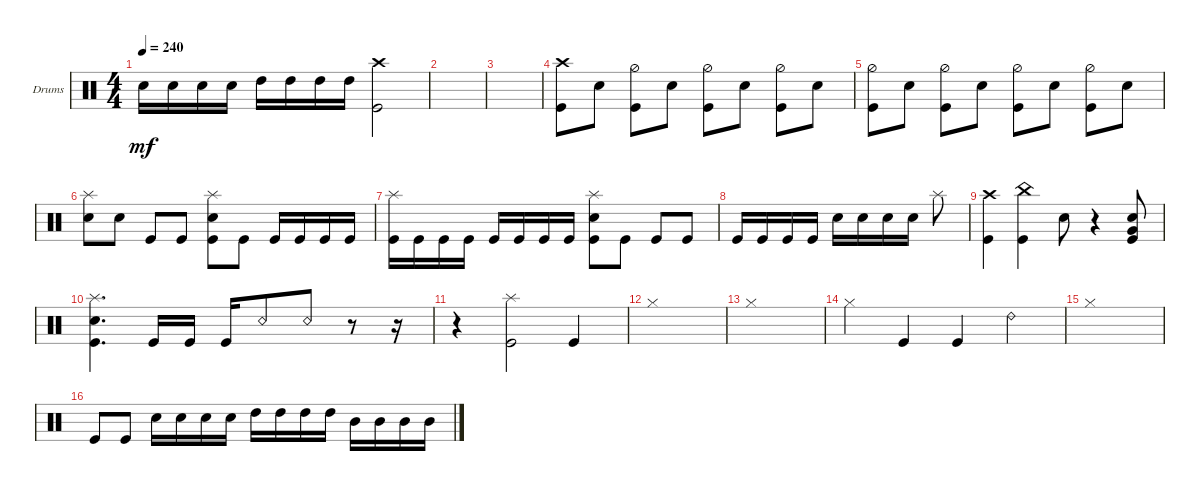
\defaultSystemsLayout 4
\bracketExtendMode groupsimilarinstruments
\firstSystemTrackNameOrientation horizontal
\otherSystemsTrackNameOrientation horizontal
\track ("Drumkit" "Drums") {instrument percussion}
\staff {score}
\articulation defaults
\ts (4 4)
\tempo 240
\clef neutral
\ks c "Snare (hit) 2".16{dy mf} "Snare (hit) 2".16 "Snare (hit) 2".16 "Snare (hit) 2".16 "High Tom (hit)".16 "High Tom (hit)".16 "High Tom (hit)".16 "High Tom (hit)".16
("Crash high (hit)" "Kick (hit)").2 |
|
|
("Crash high (hit)" "Kick (hit)").8 "Snare (hit) 2".8 ("Hi-Hat (half)" "Kick (hit)").8 "Snare (hit) 2".8 ("Hi-Hat (half)" "Kick (hit)").8 "Snare (hit) 2".8 ("Hi-Hat (half)" "Kick (hit)").8 "Snare (hit) 2".8 |
("Hi-Hat (half)" "Kick (hit)").8 "Snare (hit) 2".8 ("Hi-Hat (half)" "Kick (hit)").8 "Snare (hit) 2".8 ("Hi-Hat (half)" "Kick (hit)").8 "Snare (hit) 2".8 ("Hi-Hat (half)" "Kick (hit)").8 "Snare (hit) 2".8 |
("Snare (hit) 2" "Splash (hit)").8 "Snare (hit) 2".8 "Kick (hit)".8 "Kick (hit)".8 ("Kick (hit)" "Splash (hit)" "Snare (hit) 2").8 "Kick (hit)".8 "Kick (hit)".16 "Kick (hit)".16 "Kick (hit)".16 "Kick (hit)".16 |
("Kick (hit)" "Splash (hit)").16 "Kick (hit)".16 "Kick (hit)".16 "Kick (hit)".16 "Kick (hit)".16 "Kick (hit)".16 "Kick (hit)".16 "Kick (hit)".16 ("Kick (hit)" "Snare (hit) 2" "Splash (hit)").8 "Kick (hit)".8 "Kick (hit)".8 "Kick (hit)".8 |
"Kick (hit)".16 "Kick (hit)".16 "Kick (hit)".16 "Kick (hit)".16 "Snare (hit) 2".16 "Snare (hit) 2".16 "Snare (hit) 2".16 "Snare (hit) 2".16 "Splash (hit)".8 |
("Crash high (hit)" "Kick (hit)").4 ("China (hit)" "Kick (hit)").4 "Snare (hit) 2".8 r.4 ("Snare (hit) 2" "Kick (hit)" "Very Low Tom (hit)").8 |
("Snare (hit) 2" "Kick (hit)" "Splash (hit)").4{d} "Kick (hit)".16 "Kick (hit)".16 "Kick (hit)".16 "Snare (rim shot)".8 "Snare (rim shot)".8 r.8 r.16 |
r.4 ("Splash (hit)" "Kick (hit)").2 "Kick (hit)".4 |
"Hi-Hat (closed)".1 |
"Hi-Hat (closed)".1 |
"Hi-Hat (closed)".4 "Kick (hit)".4 "Kick (hit)".4 "Ride (bell) 2".4 |
"Hi-Hat (closed)".1 |
"Kick (hit)".8 "Kick (hit)".8 "Snare (hit) 2".16 "Snare (hit) 2".16 "Snare (hit) 2".16 "Snare (hit) 2".16 "High Tom (hit)".16 "High Tom (hit)".16 "High Tom (hit)".16 "High Tom (hit)".16 "Mid Tom (hit)".16 "Mid Tom (hit)".16 "Mid Tom (hit)".16 "Mid Tom (hit)".16
